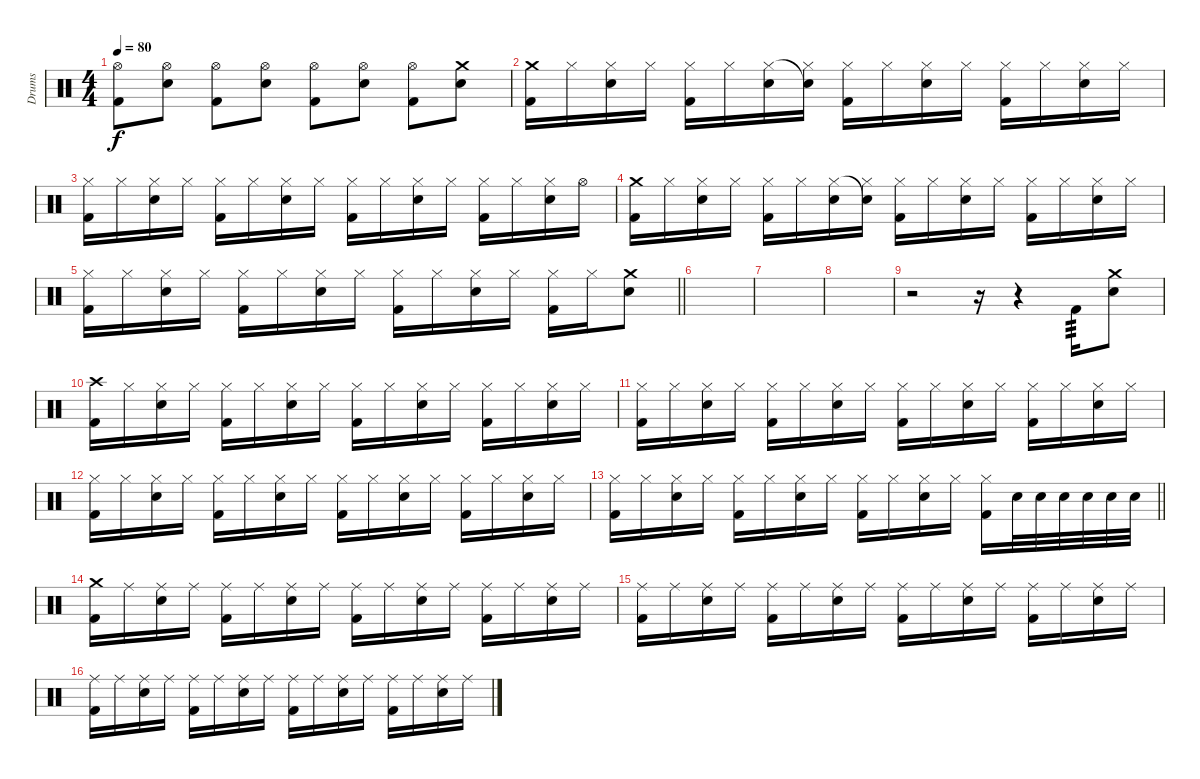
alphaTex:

\track ("Drums" "Drums") {instrument percussion}
\staff {score}
\articulation defaults
\ts (4 4)
\tempo 80
\clef neutral
\ks c
("Hi-Hat (open)" "Kick (hit) 2").8{dy f} ("Hi-Hat (open)" "Electric Snare (hit)").8 ("Hi-Hat (open)" "Kick (hit) 2").8 ("Hi-Hat (open)" "Electric Snare (hit)").8 ("Hi-Hat (open)" "Kick (hit) 2").8 ("Hi-Hat (open)" "Electric Snare (hit)").8 ("Hi-Hat (open)" "Kick (hit) 2").8 ("Crash medium (hit)" "Electric Snare (hit)").8 |
("Crash medium (hit)" "Kick (hit) 2").16 "Hi-Hat (closed)".16 ("Hi-Hat (closed)" "Electric Snare (hit)").16 "Hi-Hat (closed)".16 ("Hi-Hat (closed)" "Kick (hit) 2").16 "Hi-Hat (closed)".16 ("Hi-Hat (closed)" "Electric Snare (hit)").16 ("Snare (hit)"{t} "Hi-Hat (closed)").16 ("Hi-Hat (closed)" "Kick (hit) 2").16 "Hi-Hat (closed)".16 ("Hi-Hat (closed)" "Electric Snare (hit)").16 "Hi-Hat (closed)".16 ("Hi-Hat (closed)" "Kick (hit) 2").16 "Hi-Hat (closed)".16 ("Hi-Hat (closed)" "Electric Snare (hit)").16 "Hi-Hat (closed)".16 |
("Hi-Hat (closed)" "Kick (hit) 2").16 "Hi-Hat (closed)".16 ("Hi-Hat (closed)" "Electric Snare (hit)").16 "Hi-Hat (closed)".16 ("Hi-Hat (closed)" "Kick (hit) 2").16 "Hi-Hat (closed)".16 ("Hi-Hat (closed)" "Electric Snare (hit)").16 "Hi-Hat (closed)".16 ("Hi-Hat (closed)" "Kick (hit) 2").16 "Hi-Hat (closed)".16 ("Hi-Hat (closed)" "Electric Snare (hit)").16 "Hi-Hat (closed)".16 ("Hi-Hat (closed)" "Kick (hit) 2").16 "Hi-Hat (closed)".16 ("Hi-Hat (closed)" "Electric Snare (hit)").16 "Hi-Hat (open)".16 |
("Crash medium (hit)" "Kick (hit) 2").16 "Hi-Hat (closed)".16 ("Hi-Hat (closed)" "Electric Snare (hit)").16 "Hi-Hat (closed)".16 ("Hi-Hat (closed)" "Kick (hit) 2").16 "Hi-Hat (closed)".16 ("Hi-Hat (closed)" "Electric Snare (hit)").16 ("Snare (hit)"{t} "Hi-Hat (closed)").16 ("Hi-Hat (closed)" "Kick (hit) 2").16 "Hi-Hat (closed)".16 ("Hi-Hat (closed)" "Electric Snare (hit)").16 "Hi-Hat (closed)".16 ("Hi-Hat (closed)" "Kick (hit) 2").16 "Hi-Hat (closed)".16 ("Hi-Hat (closed)" "Electric Snare (hit)").16 "Hi-Hat (closed)".16 |
\barLineRight lightlight
("Hi-Hat (closed)" "Kick (hit) 2").16 "Hi-Hat (closed)".16 ("Hi-Hat (closed)" "Electric Snare (hit)").16 "Hi-Hat (closed)".16 ("Hi-Hat (closed)" "Kick (hit) 2").16 "Hi-Hat (closed)".16 ("Hi-Hat (closed)" "Electric Snare (hit)").16 "Hi-Hat (closed)".16 ("Hi-Hat (closed)" "Kick (hit) 2").16 "Hi-Hat (closed)".16 ("Hi-Hat (closed)" "Electric Snare (hit)").16 "Hi-Hat (closed)".16 ("Hi-Hat (closed)" "Kick (hit) 2").16 "Hi-Hat (closed)".16 ("Crash medium (hit)" "Electric Snare (hit)").8 |
|
|
|
r.2 r.16 r.4 "Kick (hit) 2".16{tp 3} ("Crash medium (hit)" "Electric Snare (hit)").8 |
("Crash high (hit)" "Kick (hit) 2").16 "Hi-Hat (closed)".16 ("Hi-Hat (closed)" "Electric Snare (hit)").16 "Hi-Hat (closed)".16 ("Hi-Hat (closed)" "Kick (hit) 2").16 "Hi-Hat (closed)".16 ("Hi-Hat (closed)" "Electric Snare (hit)").16 "Hi-Hat (closed)".16 ("Hi-Hat (closed)" "Kick (hit) 2").16 "Hi-Hat (closed)".16 ("Hi-Hat (closed)" "Electric Snare (hit)").16 "Hi-Hat (closed)".16 ("Hi-Hat (closed)" "Kick (hit) 2").16 "Hi-Hat (closed)".16 ("Hi-Hat (closed)" "Electric Snare (hit)").16 "Hi-Hat (closed)".16 |
("Hi-Hat (closed)" "Kick (hit) 2").16 "Hi-Hat (closed)".16 ("Hi-Hat (closed)" "Electric Snare (hit)").16 "Hi-Hat (closed)".16 ("Hi-Hat (closed)" "Kick (hit) 2").16 "Hi-Hat (closed)".16 ("Hi-Hat (closed)" "Electric Snare (hit)").16 "Hi-Hat (closed)".16 ("Hi-Hat (closed)" "Kick (hit) 2").16 "Hi-Hat (closed)".16 ("Hi-Hat (closed)" "Electric Snare (hit)").16 "Hi-Hat (closed)".16 ("Hi-Hat (closed)" "Kick (hit) 2").16 "Hi-Hat (closed)".16 ("Hi-Hat (closed)" "Electric Snare (hit)").16 "Hi-Hat (closed)".16 |
("Hi-Hat (closed)" "Kick (hit) 2").16 "Hi-Hat (closed)".16 ("Hi-Hat (closed)" "Electric Snare (hit)").16 "Hi-Hat (closed)".16 ("Hi-Hat (closed)" "Kick (hit) 2").16 "Hi-Hat (closed)".16 ("Hi-Hat (closed)" "Electric Snare (hit)").16 "Hi-Hat (closed)".16 ("Hi-Hat (closed)" "Kick (hit) 2").16 "Hi-Hat (closed)".16 ("Hi-Hat (closed)" "Electric Snare (hit)").16 "Hi-Hat (closed)".16 ("Hi-Hat (closed)" "Kick (hit) 2").16 "Hi-Hat (closed)".16 ("Hi-Hat (closed)" "Electric Snare (hit)").16 "Hi-Hat (closed)".16 |
\barLineRight lightlight
("Hi-Hat (closed)" "Kick (hit) 2").16 "Hi-Hat (closed)".16 ("Hi-Hat (closed)" "Electric Snare (hit)").16 "Hi-Hat (closed)".16 ("Hi-Hat (closed)" "Kick (hit) 2").16 "Hi-Hat (closed)".16 ("Hi-Hat (closed)" "Electric Snare (hit)").16 "Hi-Hat (closed)".16 ("Hi-Hat (closed)" "Kick (hit) 2").16 "Hi-Hat (closed)".16 ("Hi-Hat (closed)" "Electric Snare (hit)").16 "Hi-Hat (closed)".16 ("Hi-Hat (closed)" "Kick (hit) 2").16 "Electric Snare (hit)".32 "Electric Snare (hit)".32 "Electric Snare (hit)".32 "Electric Snare (hit)".32 "Electric Snare (hit)".32 "Electric Snare (hit)".32 |
("Crash medium (hit)" "Kick (hit) 2").16 "Ride (middle)".16 ("Ride (middle)" "Electric Snare (hit)").16 "Ride (middle)".16 ("Ride (middle)" "Kick (hit) 2").16 "Ride (middle)".16 ("Ride (middle)" "Electric Snare (hit)").16 "Ride (middle)".16 ("Ride (middle)" "Kick (hit) 2").16 "Ride (middle)".16 ("Ride (middle)" "Electric Snare (hit)").16 "Ride (middle)".16 ("Ride (middle)" "Kick (hit) 2").16 "Ride (middle)".16 ("Ride (middle)" "Electric Snare (hit)").16 "Ride (middle)".16 |
("Ride (middle)" "Kick (hit) 2").16 "Ride (middle)".16 ("Ride (middle)" "Electric Snare (hit)").16 "Ride (middle)".16 ("Ride (middle)" "Kick (hit) 2").16 "Ride (middle)".16 ("Ride (middle)" "Electric Snare (hit)").16 "Ride (middle)".16 ("Ride (middle)" "Kick (hit) 2").16 "Ride (middle)".16 ("Ride (middle)" "Electric Snare (hit)").16 "Ride (middle)".16 ("Ride (middle)" "Kick (hit) 2").16 "Ride (middle)".16 ("Ride (middle)" "Electric Snare (hit)").16 "Ride (middle)".16 |
("Ride (middle)" "Kick (hit) 2").16 "Ride (middle)".16 ("Ride (middle)" "Electric Snare (hit)").16 "Ride (middle)".16 ("Ride (middle)" "Kick (hit) 2").16 "Ride (middle)".16 ("Ride (middle)" "Electric Snare (hit)").16 "Ride (middle)".16 ("Ride (middle)" "Kick (hit) 2").16 "Ride (middle)".16 ("Ride (middle)" "Electric Snare (hit)").16 "Ride (middle)".16 ("Ride (middle)" "Kick (hit) 2").16 "Ride (middle)".16 ("Ride (middle)" "Electric Snare (hit)").16 "Ride (middle)".16
